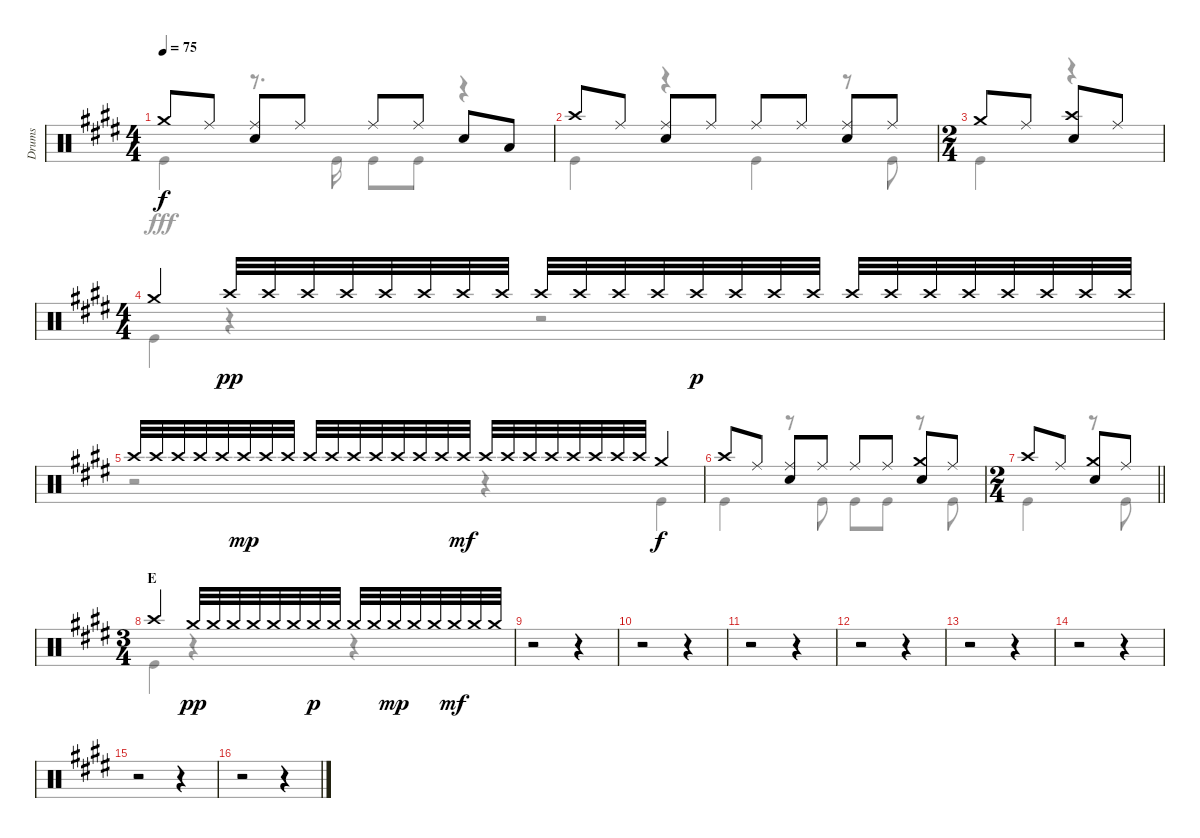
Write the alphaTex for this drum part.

\track ("Drums" "Drums") {instrument percussion}
\staff {score}
\articulation defaults
\voice
\ts (4 4)
\tempo 75
\clef neutral
\ks e "Crash medium (hit)".8{dy f} "Ride (middle)".8
("Ride (middle)" "Snare (hit) 2").8 "Ride (middle)".8 "Ride (middle)".8 "Ride (middle)".8 "Snare (hit) 2".8 "Low Tom (hit)".8 |
"Crash high (hit)".8 "Ride (middle)".8 ("Ride (middle)" "Snare (hit) 2").8 "Ride (middle)".8 "Ride (middle)".8 "Ride (middle)".8 ("Ride (middle)" "Snare (hit) 2").8 "Ride (middle)".8 |
\ts (2 4)
"Crash medium (hit)".8 "Ride (middle)".8 ("Crash high (hit)" "Snare (hit) 2").8 "Ride (middle)".8 |
\ts (4 4)
"Crash medium (hit)".4 "Crash high (hit)".32{dy pp} "Crash high (hit)".32 "Crash high (hit)".32 "Crash high (hit)".32 "Crash high (hit)".32 "Crash high (hit)".32 "Crash high (hit)".32 "Crash high (hit)".32 "Crash high (hit)".32 "Crash high (hit)".32 "Crash high (hit)".32 "Crash high (hit)".32 "Crash high (hit)".32{dy p} "Crash high (hit)".32 "Crash high (hit)".32 "Crash high (hit)".32 "Crash high (hit)".32 "Crash high (hit)".32 "Crash high (hit)".32 "Crash high (hit)".32 "Crash high (hit)".32 "Crash high (hit)".32 "Crash high (hit)".32 "Crash high (hit)".32 |
"Crash high (hit)".32 "Crash high (hit)".32 "Crash high (hit)".32 "Crash high (hit)".32 "Crash high (hit)".32 "Crash high (hit)".32{dy mp} "Crash high (hit)".32 "Crash high (hit)".32 "Crash high (hit)".32 "Crash high (hit)".32 "Crash high (hit)".32 "Crash high (hit)".32 "Crash high (hit)".32 "Crash high (hit)".32 "Crash high (hit)".32 "Crash high (hit)".32{dy mf} "Crash high (hit)".32 "Crash high (hit)".32 "Crash high (hit)".32 "Crash high (hit)".32 "Crash high (hit)".32 "Crash high (hit)".32 "Crash high (hit)".32 "Crash high (hit)".32 "Crash medium (hit)".4{dy f} |
"Crash high (hit)".8 "Ride (middle)".8 ("Ride (middle)" "Snare (hit) 2").8 "Ride (middle)".8 "Ride (middle)".8 "Ride (middle)".8 ("Crash medium (hit)" "Snare (hit) 2").8 "Ride (middle)".8 |
\ts (2 4)
\barLineRight lightlight "Crash high (hit)".8 "Ride (middle)".8
("Crash medium (hit)" "Snare (hit) 2").8 "Ride (middle)".8 |
\ts (3 4)
\section ("" "E")
"Crash high (hit)".4 "Crash medium (hit)".32{dy pp} "Crash medium (hit)".32 "Crash medium (hit)".32 "Crash medium (hit)".32 "Crash medium (hit)".32 "Crash medium (hit)".32 "Crash medium (hit)".32{dy p} "Crash medium (hit)".32 "Crash medium (hit)".32 "Crash medium (hit)".32 "Crash medium (hit)".32{dy mp} "Crash medium (hit)".32 "Crash medium (hit)".32 "Crash medium (hit)".32{dy mf} "Crash medium (hit)".32 "Crash medium (hit)".32 |
r.2 r.4 |
r.2 r.4 |
r.2 r.4 |
r.2 r.4 |
r.2 r.4 |
r.2 r.4 |
r.2 r.4 |
r.2 r.4
\voice
\clef neutral
\ottava regular
\simile none
\ks e "Kick (hit)".4{dy fff}
r.8{d} "Kick (hit)".16 "Kick (hit)".8 "Kick (hit)".8 r.4 |
"Kick (hit)".4 r.4 "Kick (hit)".4 r.8 "Kick (hit)".8 |
"Kick (hit)".4 r.4 |
"Kick (hit)".4 r.4 r.2 |
r.2 r.4 "Kick (hit)".4 |
"Kick (hit)".4 r.8 "Kick (hit)".8 "Kick (hit)".8 "Kick (hit)".8 r.8 "Kick (hit)".8 |
\barLineRight lightlight "Kick (hit)".4
r.8 "Kick (hit)".8 |
"Kick (hit)".4 r.4 r.4 |
r.2 r.4 |
r.2 r.4 |
r.2 r.4 |
r.2 r.4 |
r.2 r.4 |
r.2 r.4 |
r.2 r.4 |
r.2 r.4
